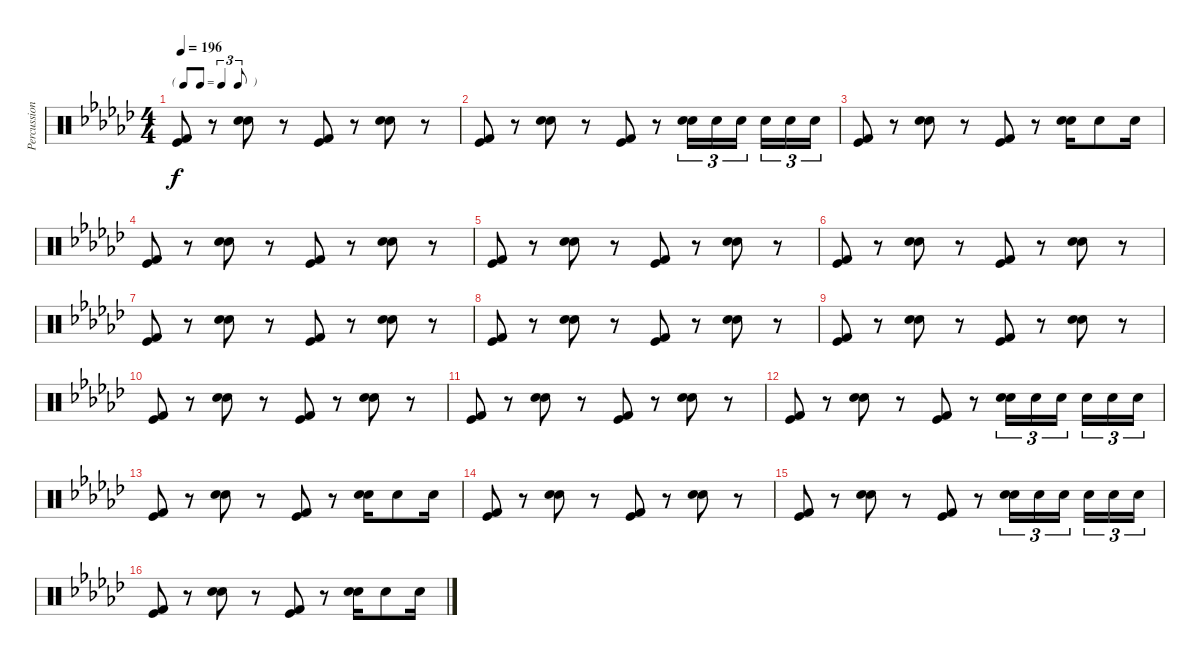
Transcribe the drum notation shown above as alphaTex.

\track ("Percussions" "Percussion") {instrument percussion}
\staff {score}
\articulation defaults
\ts (4 4)
\tf triplet8th
\tempo 196
\clef neutral
\ks gb
("Kick (hit) 2" "Kick (hit)").8{dy f} r.8 ("Snare (hit) 2" "Electric Snare (hit)").8 r.8 ("Kick (hit) 2" "Kick (hit)").8 r.8 ("Snare (hit) 2" "Electric Snare (hit)").8 r.8 |
("Kick (hit) 2" "Kick (hit)").8 r.8 ("Snare (hit) 2" "Electric Snare (hit)").8 r.8 ("Kick (hit) 2" "Kick (hit)").8 r.8 ("Hand Clap (hit)" "Electric Snare (hit)").16{tu (3 2)} "Hand Clap (hit)".16{tu (3 2)} "Hand Clap (hit)".16{tu (3 2) beam splitsecondary} "Hand Clap (hit)".16{tu (3 2)} "Hand Clap (hit)".16{tu (3 2)} "Hand Clap (hit)".16{tu (3 2)} |
("Kick (hit) 2" "Kick (hit)").8 r.8 ("Snare (hit) 2" "Electric Snare (hit)").8 r.8 ("Kick (hit) 2" "Kick (hit)").8 r.8 ("Snare (hit) 2" "Electric Snare (hit)").16 "Hand Clap (hit)".8 "Hand Clap (hit)".16 |
("Kick (hit) 2" "Kick (hit)").8 r.8 ("Snare (hit) 2" "Electric Snare (hit)").8 r.8 ("Kick (hit) 2" "Kick (hit)").8 r.8 ("Snare (hit) 2" "Electric Snare (hit)").8 r.8 |
("Kick (hit) 2" "Kick (hit)").8 r.8 ("Snare (hit) 2" "Electric Snare (hit)").8 r.8 ("Kick (hit) 2" "Kick (hit)").8 r.8 ("Snare (hit) 2" "Electric Snare (hit)").8 r.8 |
("Kick (hit) 2" "Kick (hit)").8 r.8 ("Snare (hit) 2" "Electric Snare (hit)").8 r.8 ("Kick (hit) 2" "Kick (hit)").8 r.8 ("Snare (hit) 2" "Electric Snare (hit)").8 r.8 |
("Kick (hit) 2" "Kick (hit)").8 r.8 ("Snare (hit) 2" "Electric Snare (hit)").8 r.8 ("Kick (hit) 2" "Kick (hit)").8 r.8 ("Snare (hit) 2" "Electric Snare (hit)").8 r.8 |
("Kick (hit) 2" "Kick (hit)").8 r.8 ("Snare (hit) 2" "Electric Snare (hit)").8 r.8 ("Kick (hit) 2" "Kick (hit)").8 r.8 ("Snare (hit) 2" "Electric Snare (hit)").8 r.8 |
("Kick (hit) 2" "Kick (hit)").8 r.8 ("Snare (hit) 2" "Electric Snare (hit)").8 r.8 ("Kick (hit) 2" "Kick (hit)").8 r.8 ("Snare (hit) 2" "Electric Snare (hit)").8 r.8 |
("Kick (hit) 2" "Kick (hit)").8 r.8 ("Snare (hit) 2" "Electric Snare (hit)").8 r.8 ("Kick (hit) 2" "Kick (hit)").8 r.8 ("Snare (hit) 2" "Electric Snare (hit)").8 r.8 |
("Kick (hit) 2" "Kick (hit)").8 r.8 ("Snare (hit) 2" "Electric Snare (hit)").8 r.8 ("Kick (hit) 2" "Kick (hit)").8 r.8 ("Snare (hit) 2" "Electric Snare (hit)").8 r.8 |
("Kick (hit) 2" "Kick (hit)").8 r.8 ("Snare (hit) 2" "Electric Snare (hit)").8 r.8 ("Kick (hit) 2" "Kick (hit)").8 r.8 ("Hand Clap (hit)" "Electric Snare (hit)").16{tu (3 2)} "Hand Clap (hit)".16{tu (3 2)} "Hand Clap (hit)".16{tu (3 2) beam splitsecondary} "Hand Clap (hit)".16{tu (3 2)} "Hand Clap (hit)".16{tu (3 2)} "Hand Clap (hit)".16{tu (3 2)} |
("Kick (hit) 2" "Kick (hit)").8 r.8 ("Snare (hit) 2" "Electric Snare (hit)").8 r.8 ("Kick (hit) 2" "Kick (hit)").8 r.8 ("Snare (hit) 2" "Electric Snare (hit)").16 "Hand Clap (hit)".8 "Hand Clap (hit)".16 |
("Kick (hit) 2" "Kick (hit)").8 r.8 ("Snare (hit) 2" "Electric Snare (hit)").8 r.8 ("Kick (hit) 2" "Kick (hit)").8 r.8 ("Snare (hit) 2" "Electric Snare (hit)").8 r.8 |
("Kick (hit) 2" "Kick (hit)").8 r.8 ("Snare (hit) 2" "Electric Snare (hit)").8 r.8 ("Kick (hit) 2" "Kick (hit)").8 r.8 ("Hand Clap (hit)" "Electric Snare (hit)").16{tu (3 2)} "Hand Clap (hit)".16{tu (3 2)} "Hand Clap (hit)".16{tu (3 2) beam splitsecondary} "Hand Clap (hit)".16{tu (3 2)} "Hand Clap (hit)".16{tu (3 2)} "Hand Clap (hit)".16{tu (3 2)} |
("Kick (hit) 2" "Kick (hit)").8 r.8 ("Snare (hit) 2" "Electric Snare (hit)").8 r.8 ("Kick (hit) 2" "Kick (hit)").8 r.8 ("Snare (hit) 2" "Electric Snare (hit)").16 "Hand Clap (hit)".8 "Hand Clap (hit)".16
